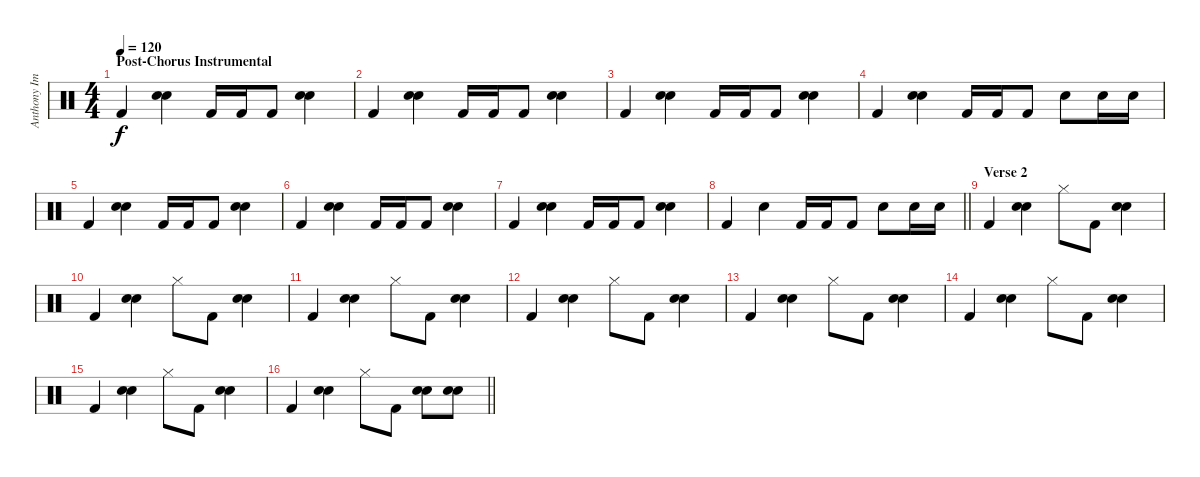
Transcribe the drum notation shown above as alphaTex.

\track ("Anthony Improgo (Percussion)" "Anthony Im") {instrument percussion}
\staff {score}
\articulation defaults
\ts (4 4)
\section ("" "Post-Chorus Instrumental")
\tempo 120
\clef neutral
\ks c "Kick (hit) 2".4{dy f}
("Snare (hit) 2" "Snare (hit) 2").4 "Kick (hit) 2".16 "Kick (hit) 2".16 "Kick (hit) 2".8 ("Snare (hit) 2" "Snare (hit) 2").4 |
"Kick (hit) 2".4 ("Snare (hit) 2" "Snare (hit) 2").4 "Kick (hit) 2".16 "Kick (hit) 2".16 "Kick (hit) 2".8 ("Snare (hit) 2" "Snare (hit) 2").4 |
"Kick (hit) 2".4 ("Snare (hit) 2" "Snare (hit) 2").4 "Kick (hit) 2".16 "Kick (hit) 2".16 "Kick (hit) 2".8 ("Snare (hit) 2" "Snare (hit) 2").4 |
"Kick (hit) 2".4 ("Snare (hit) 2" "Snare (hit) 2").4 "Kick (hit) 2".16 "Kick (hit) 2".16 "Kick (hit) 2".8 "Snare (hit) 2".8 "Snare (hit) 2".16 "Snare (hit) 2".16 |
"Kick (hit) 2".4 ("Snare (hit) 2" "Snare (hit) 2").4 "Kick (hit) 2".16 "Kick (hit) 2".16 "Kick (hit) 2".8 ("Snare (hit) 2" "Snare (hit) 2").4 |
"Kick (hit) 2".4 ("Snare (hit) 2" "Snare (hit) 2").4 "Kick (hit) 2".16 "Kick (hit) 2".16 "Kick (hit) 2".8 ("Snare (hit) 2" "Snare (hit) 2").4 |
"Kick (hit) 2".4 ("Snare (hit) 2" "Snare (hit) 2").4 "Kick (hit) 2".16 "Kick (hit) 2".16 "Kick (hit) 2".8 ("Snare (hit) 2" "Snare (hit) 2").4 |
\barLineRight lightlight "Kick (hit) 2".4 "Snare (hit) 2".4 "Kick (hit) 2".16 "Kick (hit) 2".16 "Kick (hit) 2".8 "Snare (hit) 2".8 "Snare (hit) 2".16 "Snare (hit) 2".16
|
\section ("" "Verse 2")
"Kick (hit) 2".4 ("Snare (hit) 2" "Snare (hit) 2").4 "Hi-Hat (closed)".8 "Kick (hit) 2".8 ("Snare (hit) 2" "Snare (hit) 2").4 |
"Kick (hit) 2".4 ("Snare (hit) 2" "Snare (hit) 2").4 "Hi-Hat (closed)".8 "Kick (hit) 2".8 ("Snare (hit) 2" "Snare (hit) 2").4 |
"Kick (hit) 2".4 ("Snare (hit) 2" "Snare (hit) 2").4 "Hi-Hat (closed)".8 "Kick (hit) 2".8 ("Snare (hit) 2" "Snare (hit) 2").4 |
"Kick (hit) 2".4 ("Snare (hit) 2" "Snare (hit) 2").4 "Hi-Hat (closed)".8 "Kick (hit) 2".8 ("Snare (hit) 2" "Snare (hit) 2").4 |
"Kick (hit) 2".4 ("Snare (hit) 2" "Snare (hit) 2").4 "Hi-Hat (closed)".8 "Kick (hit) 2".8 ("Snare (hit) 2" "Snare (hit) 2").4 |
"Kick (hit) 2".4 ("Snare (hit) 2" "Snare (hit) 2").4 "Hi-Hat (closed)".8 "Kick (hit) 2".8 ("Snare (hit) 2" "Snare (hit) 2").4 |
"Kick (hit) 2".4 ("Snare (hit) 2" "Snare (hit) 2").4 "Hi-Hat (closed)".8 "Kick (hit) 2".8 ("Snare (hit) 2" "Snare (hit) 2").4 |
\barLineRight lightlight "Kick (hit) 2".4
("Snare (hit) 2" "Snare (hit) 2").4 "Hi-Hat (closed)".8 "Kick (hit) 2".8 ("Snare (hit) 2" "Snare (hit) 2").8 ("Snare (hit) 2" "Snare (hit) 2").8
